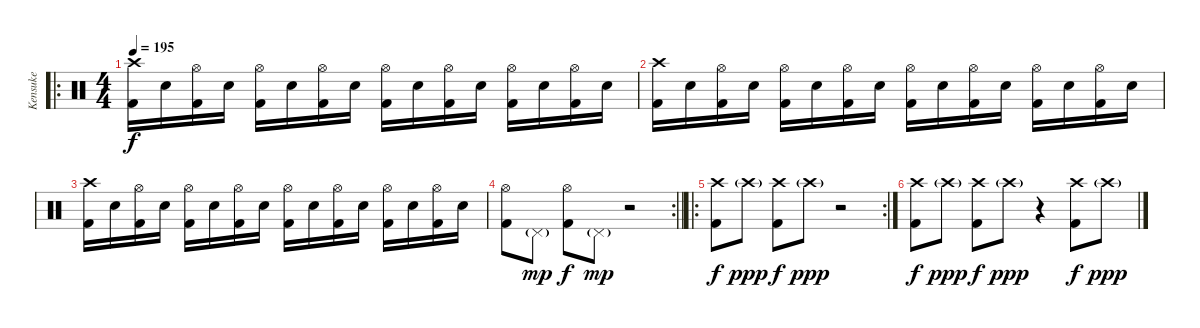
\track ("Kensuke" "Kensuke") {instrument percussion}
\staff {score}
\articulation defaults
\ro
\ts (4 4)
\tempo 195
\clef neutral
\ks c
("Crash high (hit)" "Kick (hit) 2").16{dy f} "Electric Snare (hit)".16 ("Hi-Hat (open)" "Kick (hit) 2").16 "Electric Snare (hit)".16 ("Hi-Hat (open)" "Kick (hit) 2").16 "Electric Snare (hit)".16 ("Hi-Hat (open)" "Kick (hit) 2").16 "Electric Snare (hit)".16 ("Hi-Hat (open)" "Kick (hit) 2").16 "Electric Snare (hit)".16 ("Hi-Hat (open)" "Kick (hit) 2").16 "Electric Snare (hit)".16 ("Hi-Hat (open)" "Kick (hit) 2").16 "Electric Snare (hit)".16 ("Hi-Hat (open)" "Kick (hit) 2").16 "Electric Snare (hit)".16 |
("Crash high (hit)" "Kick (hit) 2").16 "Electric Snare (hit)".16 ("Hi-Hat (open)" "Kick (hit) 2").16 "Electric Snare (hit)".16 ("Hi-Hat (open)" "Kick (hit) 2").16 "Electric Snare (hit)".16 ("Hi-Hat (open)" "Kick (hit) 2").16 "Electric Snare (hit)".16 ("Hi-Hat (open)" "Kick (hit) 2").16 "Electric Snare (hit)".16 ("Hi-Hat (open)" "Kick (hit) 2").16 "Electric Snare (hit)".16 ("Hi-Hat (open)" "Kick (hit) 2").16 "Electric Snare (hit)".16 ("Hi-Hat (open)" "Kick (hit) 2").16 "Electric Snare (hit)".16 |
("Crash high (hit)" "Kick (hit) 2").16 "Electric Snare (hit)".16 ("Hi-Hat (open)" "Kick (hit) 2").16 "Electric Snare (hit)".16 ("Hi-Hat (open)" "Kick (hit) 2").16 "Electric Snare (hit)".16 ("Hi-Hat (open)" "Kick (hit) 2").16 "Electric Snare (hit)".16 ("Hi-Hat (open)" "Kick (hit) 2").16 "Electric Snare (hit)".16 ("Hi-Hat (open)" "Kick (hit) 2").16 "Electric Snare (hit)".16 ("Hi-Hat (open)" "Kick (hit) 2").16 "Electric Snare (hit)".16 ("Hi-Hat (open)" "Kick (hit) 2").16 "Electric Snare (hit)".16 |
\rc 2
\barLineRight lightlight
("Hi-Hat (open)" "Kick (hit) 2").8 "Pedal Hi-Hat (hit)"{g}.8{dy mp} ("Hi-Hat (open)" "Kick (hit) 2").8{dy f} "Pedal Hi-Hat (hit)"{g}.8{dy mp} r.2 |
\ro
\rc 2
\section ("" "")
("Crash high (hit)" "Kick (hit) 2").8{dy f} "Crash high (hit)"{g}.8{dy ppp} ("Crash high (hit)" "Kick (hit) 2").8{dy f} "Crash high (hit)"{g}.8{dy ppp} r.2 |
("Crash high (hit)" "Kick (hit) 2").8{dy f} "Crash high (hit)"{g}.8{dy ppp} ("Crash high (hit)" "Kick (hit) 2").8{dy f} "Crash high (hit)"{g}.8{dy ppp} r.4 ("Crash high (hit)" "Kick (hit) 2").8{dy f} "Crash high (hit)"{g}.8{dy ppp}
